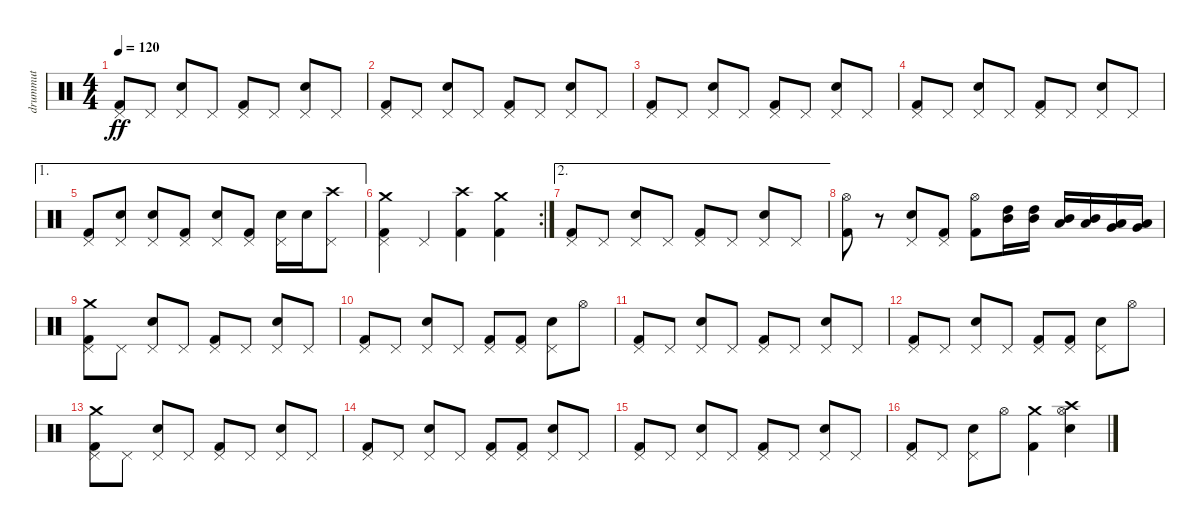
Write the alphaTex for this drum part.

\track ("drummut" "drummut") {instrument percussion}
\staff {score}
\articulation defaults
\ts (4 4)
\tempo 120
\clef neutral
\ks c
("Kick (hit) 2" "Pedal Hi-Hat (hit)").8{dy ff} "Pedal Hi-Hat (hit)".8 ("Electric Snare (hit)" "Pedal Hi-Hat (hit)").8 "Pedal Hi-Hat (hit)".8 ("Kick (hit) 2" "Pedal Hi-Hat (hit)").8 "Pedal Hi-Hat (hit)".8 ("Electric Snare (hit)" "Pedal Hi-Hat (hit)").8 "Pedal Hi-Hat (hit)".8 |
("Kick (hit) 2" "Pedal Hi-Hat (hit)").8 "Pedal Hi-Hat (hit)".8 ("Electric Snare (hit)" "Pedal Hi-Hat (hit)").8 "Pedal Hi-Hat (hit)".8 ("Kick (hit) 2" "Pedal Hi-Hat (hit)").8 "Pedal Hi-Hat (hit)".8 ("Electric Snare (hit)" "Pedal Hi-Hat (hit)").8 "Pedal Hi-Hat (hit)".8 |
("Kick (hit) 2" "Pedal Hi-Hat (hit)").8 "Pedal Hi-Hat (hit)".8 ("Electric Snare (hit)" "Pedal Hi-Hat (hit)").8 "Pedal Hi-Hat (hit)".8 ("Kick (hit) 2" "Pedal Hi-Hat (hit)").8 "Pedal Hi-Hat (hit)".8 ("Electric Snare (hit)" "Pedal Hi-Hat (hit)").8 "Pedal Hi-Hat (hit)".8 |
("Kick (hit) 2" "Pedal Hi-Hat (hit)").8 "Pedal Hi-Hat (hit)".8 ("Electric Snare (hit)" "Pedal Hi-Hat (hit)").8 "Pedal Hi-Hat (hit)".8 ("Kick (hit) 2" "Pedal Hi-Hat (hit)").8 "Pedal Hi-Hat (hit)".8 ("Electric Snare (hit)" "Pedal Hi-Hat (hit)").8 "Pedal Hi-Hat (hit)".8 |
\ae 1
("Kick (hit) 2" "Pedal Hi-Hat (hit)").8 ("Electric Snare (hit)" "Pedal Hi-Hat (hit)").8 ("Electric Snare (hit)" "Pedal Hi-Hat (hit)").8 ("Kick (hit) 2" "Pedal Hi-Hat (hit)").8 ("Electric Snare (hit)" "Pedal Hi-Hat (hit)").8 ("Kick (hit) 2" "Pedal Hi-Hat (hit)").8 ("Electric Snare (hit)" "Pedal Hi-Hat (hit)").16 "Electric Snare (hit)".16 ("Pedal Hi-Hat (hit)" "Crash high (hit)").8 |
\rc 2
("Kick (hit) 2" "Pedal Hi-Hat (hit)" "Crash medium (hit)").4 "Pedal Hi-Hat (hit)".4 ("Kick (hit) 2" "Crash high (hit)").4 ("Kick (hit) 2" "Crash medium (hit)").4 |
\ae 2
("Kick (hit) 2" "Pedal Hi-Hat (hit)").8 "Pedal Hi-Hat (hit)".8 ("Electric Snare (hit)" "Pedal Hi-Hat (hit)").8 "Pedal Hi-Hat (hit)".8 ("Kick (hit) 2" "Pedal Hi-Hat (hit)").8 "Pedal Hi-Hat (hit)".8 ("Electric Snare (hit)" "Pedal Hi-Hat (hit)").8 "Pedal Hi-Hat (hit)".8 |
("Kick (hit) 2" "Hi-Hat (open)").8 r.8 ("Electric Snare (hit)" "Pedal Hi-Hat (hit)").8 ("Kick (hit) 2" "Pedal Hi-Hat (hit)").8 ("Kick (hit) 2" "Hi-Hat (open)").8 ("High Tom (hit)" "Mid Tom (hit)").16 ("High Tom (hit)" "Mid Tom (hit)").16 ("Mid Tom (hit)" "Low Tom (hit)").16 ("Mid Tom (hit)" "Low Tom (hit)").16 ("Low Tom (hit)" "Very Low Tom (hit)").16 ("Low Tom (hit)" "Very Low Tom (hit)").16 |
("Kick (hit) 2" "Pedal Hi-Hat (hit)" "Crash medium (hit)").8 "Pedal Hi-Hat (hit)".8 ("Electric Snare (hit)" "Pedal Hi-Hat (hit)").8 "Pedal Hi-Hat (hit)".8 ("Kick (hit) 2" "Pedal Hi-Hat (hit)").8 "Pedal Hi-Hat (hit)".8 ("Electric Snare (hit)" "Pedal Hi-Hat (hit)").8 "Pedal Hi-Hat (hit)".8 |
("Kick (hit) 2" "Pedal Hi-Hat (hit)").8 "Pedal Hi-Hat (hit)".8 ("Electric Snare (hit)" "Pedal Hi-Hat (hit)").8 "Pedal Hi-Hat (hit)".8 ("Kick (hit) 2" "Pedal Hi-Hat (hit)").8 ("Kick (hit) 2" "Pedal Hi-Hat (hit)").8 ("Electric Snare (hit)" "Pedal Hi-Hat (hit)").8 "Hi-Hat (open)".8 |
("Kick (hit) 2" "Pedal Hi-Hat (hit)").8 "Pedal Hi-Hat (hit)".8 ("Electric Snare (hit)" "Pedal Hi-Hat (hit)").8 "Pedal Hi-Hat (hit)".8 ("Kick (hit) 2" "Pedal Hi-Hat (hit)").8 "Pedal Hi-Hat (hit)".8 ("Electric Snare (hit)" "Pedal Hi-Hat (hit)").8 "Pedal Hi-Hat (hit)".8 |
("Kick (hit) 2" "Pedal Hi-Hat (hit)").8 "Pedal Hi-Hat (hit)".8 ("Electric Snare (hit)" "Pedal Hi-Hat (hit)").8 "Pedal Hi-Hat (hit)".8 ("Kick (hit) 2" "Pedal Hi-Hat (hit)").8 ("Kick (hit) 2" "Pedal Hi-Hat (hit)").8 ("Electric Snare (hit)" "Pedal Hi-Hat (hit)").8 "Hi-Hat (open)".8 |
("Kick (hit) 2" "Pedal Hi-Hat (hit)" "Crash medium (hit)").8 "Pedal Hi-Hat (hit)".8 ("Electric Snare (hit)" "Pedal Hi-Hat (hit)").8 "Pedal Hi-Hat (hit)".8 ("Kick (hit) 2" "Pedal Hi-Hat (hit)").8 "Pedal Hi-Hat (hit)".8 ("Electric Snare (hit)" "Pedal Hi-Hat (hit)").8 "Pedal Hi-Hat (hit)".8 |
("Kick (hit) 2" "Pedal Hi-Hat (hit)").8 "Pedal Hi-Hat (hit)".8 ("Electric Snare (hit)" "Pedal Hi-Hat (hit)").8 "Pedal Hi-Hat (hit)".8 ("Kick (hit) 2" "Pedal Hi-Hat (hit)").8 ("Kick (hit) 2" "Pedal Hi-Hat (hit)").8 ("Electric Snare (hit)" "Pedal Hi-Hat (hit)").8 "Pedal Hi-Hat (hit)".8 |
("Kick (hit) 2" "Pedal Hi-Hat (hit)").8 "Pedal Hi-Hat (hit)".8 ("Electric Snare (hit)" "Pedal Hi-Hat (hit)").8 "Pedal Hi-Hat (hit)".8 ("Kick (hit) 2" "Pedal Hi-Hat (hit)").8 "Pedal Hi-Hat (hit)".8 ("Electric Snare (hit)" "Pedal Hi-Hat (hit)").8 "Pedal Hi-Hat (hit)".8 |
("Kick (hit) 2" "Pedal Hi-Hat (hit)").8 "Pedal Hi-Hat (hit)".8 ("Electric Snare (hit)" "Pedal Hi-Hat (hit)").8 "Hi-Hat (open)".8 ("Kick (hit) 2" "Crash medium (hit)").4 ("Electric Snare (hit)" "Hi-Hat (open)" "Crash high (hit)").4
